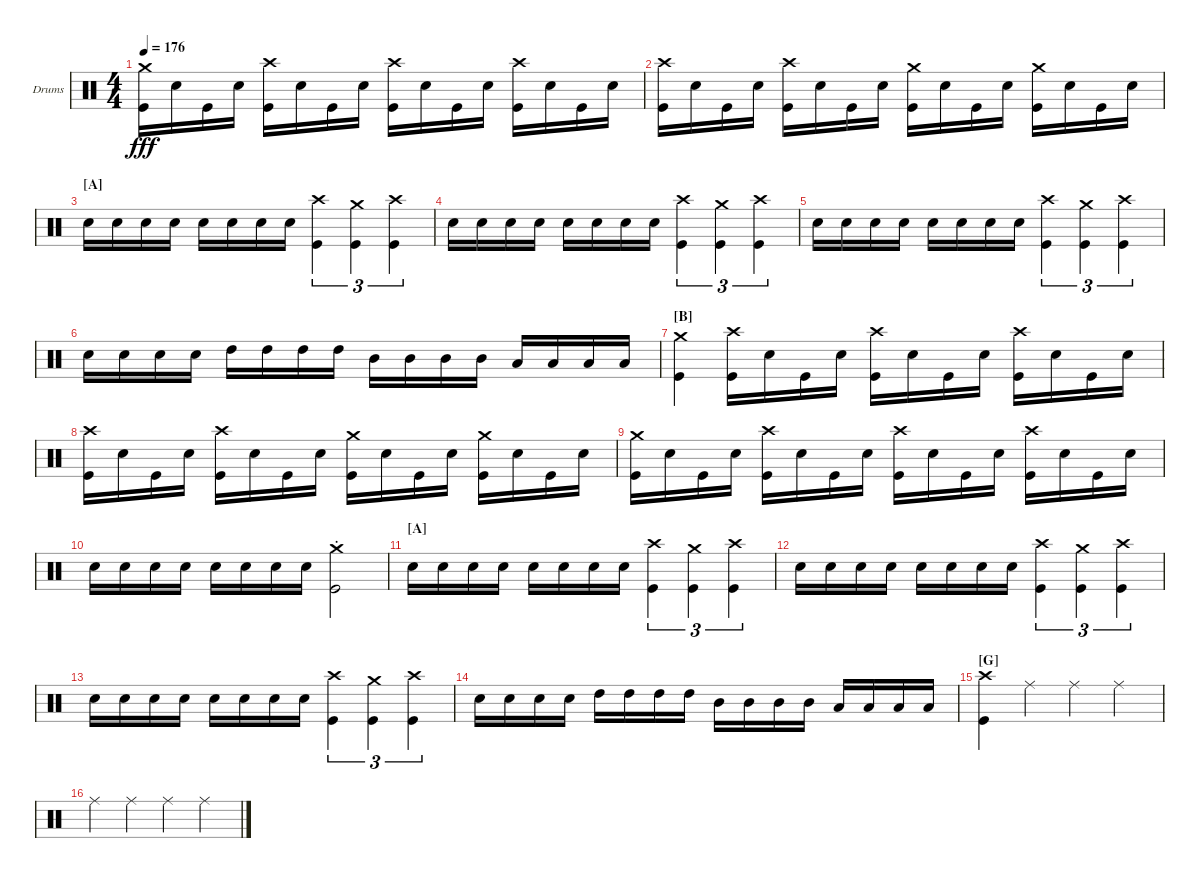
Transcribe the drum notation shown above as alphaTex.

\defaultSystemsLayout 4
\bracketExtendMode groupsimilarinstruments
\firstSystemTrackNameOrientation horizontal
\otherSystemsTrackNameOrientation horizontal
\track ("Drums" "Drums") {instrument percussion}
\staff {score}
\articulation defaults
\ts (4 4)
\tempo 176
\clef neutral
\ks c
("Kick (hit)" "Crash medium (hit)").16{dy fff} "Snare (hit) 2".16 "Kick (hit)".16 "Snare (hit) 2".16 ("Kick (hit)" "Crash high (hit)").16 "Snare (hit) 2".16 "Kick (hit)".16 "Snare (hit) 2".16 ("Kick (hit)" "Crash high (hit)").16 "Snare (hit) 2".16 "Kick (hit)".16 "Snare (hit) 2".16 ("Kick (hit)" "Crash high (hit)").16 "Snare (hit) 2".16 "Kick (hit)".16 "Snare (hit) 2".16 |
("Kick (hit)" "Crash high (hit)").16 "Snare (hit) 2".16 "Kick (hit)".16 "Snare (hit) 2".16 ("Kick (hit)" "Crash high (hit)").16 "Snare (hit) 2".16 "Kick (hit)".16 "Snare (hit) 2".16 ("Kick (hit)" "Crash medium (hit)").16 "Snare (hit) 2".16 "Kick (hit)".16 "Snare (hit) 2".16 ("Kick (hit)" "Crash medium (hit)").16 "Snare (hit) 2".16 "Kick (hit)".16 "Snare (hit) 2".16 |
\section ("A" "")
"Snare (hit) 2".16 "Snare (hit) 2".16 "Snare (hit) 2".16 "Snare (hit) 2".16 "Snare (hit) 2".16 "Snare (hit) 2".16 "Snare (hit) 2".16 "Snare (hit) 2".16 ("Kick (hit)" "Crash high (hit)").4{tu (3 2)} ("Kick (hit)" "Crash medium (hit)").4{tu (3 2)} ("Kick (hit)" "Crash high (hit)").4{tu (3 2)} |
"Snare (hit) 2".16 "Snare (hit) 2".16 "Snare (hit) 2".16 "Snare (hit) 2".16 "Snare (hit) 2".16 "Snare (hit) 2".16 "Snare (hit) 2".16 "Snare (hit) 2".16 ("Kick (hit)" "Crash high (hit)").4{tu (3 2)} ("Kick (hit)" "Crash medium (hit)").4{tu (3 2)} ("Kick (hit)" "Crash high (hit)").4{tu (3 2)} |
"Snare (hit) 2".16 "Snare (hit) 2".16 "Snare (hit) 2".16 "Snare (hit) 2".16 "Snare (hit) 2".16 "Snare (hit) 2".16 "Snare (hit) 2".16 "Snare (hit) 2".16 ("Kick (hit)" "Crash high (hit)").4{tu (3 2)} ("Kick (hit)" "Crash medium (hit)").4{tu (3 2)} ("Kick (hit)" "Crash high (hit)").4{tu (3 2)} |
"Snare (hit) 2".16 "Snare (hit) 2".16 "Snare (hit) 2".16 "Snare (hit) 2".16 "High Tom (hit)".16 "High Tom (hit)".16 "High Tom (hit)".16 "High Tom (hit)".16 "Mid Tom (hit)".16 "Mid Tom (hit)".16 "Mid Tom (hit)".16 "Mid Tom (hit)".16 "Low Tom (hit)".16 "Low Tom (hit)".16 "Low Tom (hit)".16 "Low Tom (hit)".16 |
\section ("B" "")
("Kick (hit)" "Crash medium (hit)").4 ("Kick (hit)" "Crash high (hit)").16 "Snare (hit) 2".16 "Kick (hit)".16 "Snare (hit) 2".16 ("Kick (hit)" "Crash high (hit)").16 "Snare (hit) 2".16 "Kick (hit)".16 "Snare (hit) 2".16 ("Kick (hit)" "Crash high (hit)").16 "Snare (hit) 2".16 "Kick (hit)".16 "Snare (hit) 2".16 |
("Kick (hit)" "Crash high (hit)").16 "Snare (hit) 2".16 "Kick (hit)".16 "Snare (hit) 2".16 ("Kick (hit)" "Crash high (hit)").16 "Snare (hit) 2".16 "Kick (hit)".16 "Snare (hit) 2".16 ("Kick (hit)" "Crash medium (hit)").16 "Snare (hit) 2".16 "Kick (hit)".16 "Snare (hit) 2".16 ("Kick (hit)" "Crash medium (hit)").16 "Snare (hit) 2".16 "Kick (hit)".16 "Snare (hit) 2".16 |
("Kick (hit)" "Crash medium (hit)").16 "Snare (hit) 2".16 "Kick (hit)".16 "Snare (hit) 2".16 ("Kick (hit)" "Crash high (hit)").16 "Snare (hit) 2".16 "Kick (hit)".16 "Snare (hit) 2".16 ("Kick (hit)" "Crash high (hit)").16 "Snare (hit) 2".16 "Kick (hit)".16 "Snare (hit) 2".16 ("Kick (hit)" "Crash high (hit)").16 "Snare (hit) 2".16 "Kick (hit)".16 "Snare (hit) 2".16 |
"Snare (hit) 2".16 "Snare (hit) 2".16 "Snare (hit) 2".16 "Snare (hit) 2".16 "Snare (hit) 2".16 "Snare (hit) 2".16 "Snare (hit) 2".16 "Snare (hit) 2".16 ("Kick (hit)"{st} "Crash medium (hit)"{st}).2 |
\section ("A" "")
"Snare (hit) 2".16 "Snare (hit) 2".16 "Snare (hit) 2".16 "Snare (hit) 2".16 "Snare (hit) 2".16 "Snare (hit) 2".16 "Snare (hit) 2".16 "Snare (hit) 2".16 ("Kick (hit)" "Crash high (hit)").4{tu (3 2)} ("Kick (hit)" "Crash medium (hit)").4{tu (3 2)} ("Kick (hit)" "Crash high (hit)").4{tu (3 2)} |
"Snare (hit) 2".16 "Snare (hit) 2".16 "Snare (hit) 2".16 "Snare (hit) 2".16 "Snare (hit) 2".16 "Snare (hit) 2".16 "Snare (hit) 2".16 "Snare (hit) 2".16 ("Kick (hit)" "Crash high (hit)").4{tu (3 2)} ("Kick (hit)" "Crash medium (hit)").4{tu (3 2)} ("Kick (hit)" "Crash high (hit)").4{tu (3 2)} |
"Snare (hit) 2".16 "Snare (hit) 2".16 "Snare (hit) 2".16 "Snare (hit) 2".16 "Snare (hit) 2".16 "Snare (hit) 2".16 "Snare (hit) 2".16 "Snare (hit) 2".16 ("Kick (hit)" "Crash high (hit)").4{tu (3 2)} ("Kick (hit)" "Crash medium (hit)").4{tu (3 2)} ("Kick (hit)" "Crash high (hit)").4{tu (3 2)} |
"Snare (hit) 2".16 "Snare (hit) 2".16 "Snare (hit) 2".16 "Snare (hit) 2".16 "High Tom (hit)".16 "High Tom (hit)".16 "High Tom (hit)".16 "High Tom (hit)".16 "Mid Tom (hit)".16 "Mid Tom (hit)".16 "Mid Tom (hit)".16 "Mid Tom (hit)".16 "Low Tom (hit)".16 "Low Tom (hit)".16 "Low Tom (hit)".16 "Low Tom (hit)".16 |
\section ("G" "")
("Kick (hit)" "Crash high (hit)").4 "Ride (middle)".4 "Ride (middle)".4 "Ride (middle)".4 |
"Ride (middle)".4 "Ride (middle)".4 "Ride (middle)".4 "Ride (middle)".4
